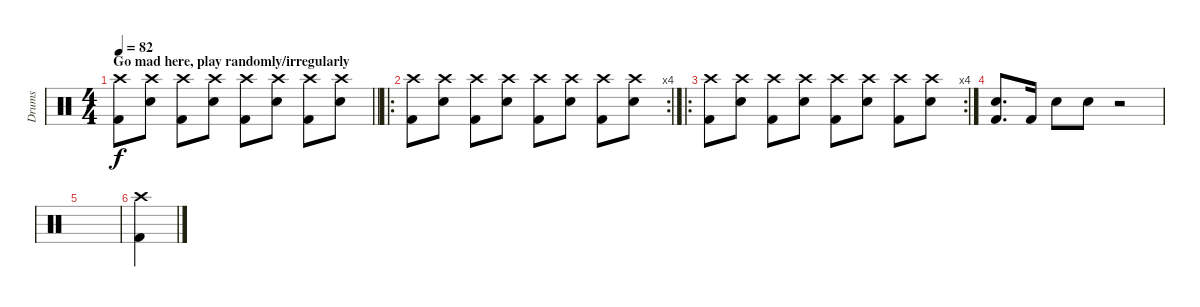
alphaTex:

\track ("Drums" "Drums") {instrument percussion}
\staff {score}
\articulation defaults
\ts (4 4)
\section ("" "Go mad here, play randomly/irregularly")
\tempo 82
\clef neutral
\barLineRight lightlight
\ks c
("Kick (hit) 2" "Crash high (hit)").8{dy f} ("Electric Snare (hit)" "Crash high (hit)").8 ("Kick (hit) 2" "Crash high (hit)").8 ("Electric Snare (hit)" "Crash high (hit)").8 ("Kick (hit) 2" "Crash high (hit)").8 ("Electric Snare (hit)" "Crash high (hit)").8 ("Kick (hit) 2" "Crash high (hit)").8 ("Electric Snare (hit)" "Crash high (hit)").8 |
\ro
\rc 4
\section ("" "")
("Kick (hit) 2" "Crash high (hit)").8 ("Electric Snare (hit)" "Crash high (hit)").8 ("Kick (hit) 2" "Crash high (hit)").8 ("Electric Snare (hit)" "Crash high (hit)").8 ("Kick (hit) 2" "Crash high (hit)").8 ("Electric Snare (hit)" "Crash high (hit)").8 ("Kick (hit) 2" "Crash high (hit)").8 ("Electric Snare (hit)" "Crash high (hit)").8 |
\ro
\rc 4
("Kick (hit) 2" "Crash high (hit)").8 ("Electric Snare (hit)" "Crash high (hit)").8 ("Kick (hit) 2" "Crash high (hit)").8 ("Electric Snare (hit)" "Crash high (hit)").8 ("Kick (hit) 2" "Crash high (hit)").8 ("Electric Snare (hit)" "Crash high (hit)").8 ("Kick (hit) 2" "Crash high (hit)").8 ("Electric Snare (hit)" "Crash high (hit)").8 |
("Kick (hit) 2" "Electric Snare (hit)").8{d} "Kick (hit) 2".16 "Electric Snare (hit)".8 "Electric Snare (hit)".8 r.2 |
|
("Kick (hit) 2" "Crash high (hit)").4
